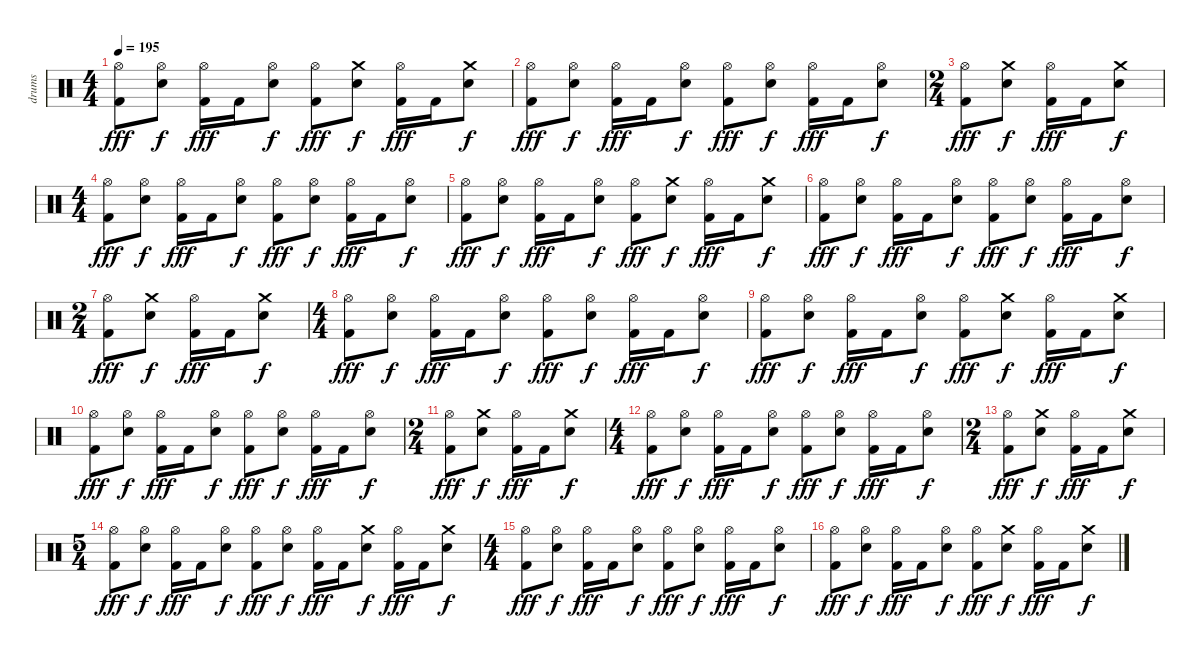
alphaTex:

\track ("drums" "drums") {instrument percussion}
\staff {score}
\articulation defaults
\ts (4 4)
\tempo 195
\clef neutral
\ks c
("Hi-Hat (open)" "Kick (hit) 2").8{dy fff} ("Hi-Hat (open)" "Snare (hit) 2").8{dy f} ("Hi-Hat (open)" "Kick (hit) 2").16{dy fff} "Kick (hit) 2".16 ("Hi-Hat (open)" "Snare (hit) 2").8{dy f} ("Hi-Hat (open)" "Kick (hit) 2").8{dy fff} ("Crash medium (hit)" "Snare (hit) 2").8{dy f} ("Hi-Hat (open)" "Kick (hit) 2").16{dy fff} "Kick (hit) 2".16 ("Crash medium (hit)" "Snare (hit) 2").8{dy f} |
("Hi-Hat (open)" "Kick (hit) 2").8{dy fff} ("Hi-Hat (open)" "Snare (hit) 2").8{dy f} ("Hi-Hat (open)" "Kick (hit) 2").16{dy fff} "Kick (hit) 2".16 ("Hi-Hat (open)" "Snare (hit) 2").8{dy f} ("Hi-Hat (open)" "Kick (hit) 2").8{dy fff} ("Hi-Hat (open)" "Snare (hit) 2").8{dy f} ("Hi-Hat (open)" "Kick (hit) 2").16{dy fff} "Kick (hit) 2".16 ("Hi-Hat (open)" "Snare (hit) 2").8{dy f} |
\ts (2 4)
("Hi-Hat (open)" "Kick (hit) 2").8{dy fff} ("Crash medium (hit)" "Snare (hit) 2").8{dy f} ("Hi-Hat (open)" "Kick (hit) 2").16{dy fff} "Kick (hit) 2".16 ("Crash medium (hit)" "Snare (hit) 2").8{dy f} |
\ts (4 4)
("Hi-Hat (open)" "Kick (hit) 2").8{dy fff} ("Hi-Hat (open)" "Snare (hit) 2").8{dy f} ("Hi-Hat (open)" "Kick (hit) 2").16{dy fff} "Kick (hit) 2".16 ("Hi-Hat (open)" "Snare (hit) 2").8{dy f} ("Hi-Hat (open)" "Kick (hit) 2").8{dy fff} ("Hi-Hat (open)" "Snare (hit) 2").8{dy f} ("Hi-Hat (open)" "Kick (hit) 2").16{dy fff} "Kick (hit) 2".16 ("Hi-Hat (open)" "Snare (hit) 2").8{dy f} |
("Hi-Hat (open)" "Kick (hit) 2").8{dy fff} ("Hi-Hat (open)" "Snare (hit) 2").8{dy f} ("Hi-Hat (open)" "Kick (hit) 2").16{dy fff} "Kick (hit) 2".16 ("Hi-Hat (open)" "Snare (hit) 2").8{dy f} ("Hi-Hat (open)" "Kick (hit) 2").8{dy fff} ("Crash medium (hit)" "Snare (hit) 2").8{dy f} ("Hi-Hat (open)" "Kick (hit) 2").16{dy fff} "Kick (hit) 2".16 ("Crash medium (hit)" "Snare (hit) 2").8{dy f} |
("Hi-Hat (open)" "Kick (hit) 2").8{dy fff} ("Hi-Hat (open)" "Snare (hit) 2").8{dy f} ("Hi-Hat (open)" "Kick (hit) 2").16{dy fff} "Kick (hit) 2".16 ("Hi-Hat (open)" "Snare (hit) 2").8{dy f} ("Hi-Hat (open)" "Kick (hit) 2").8{dy fff} ("Hi-Hat (open)" "Snare (hit) 2").8{dy f} ("Hi-Hat (open)" "Kick (hit) 2").16{dy fff} "Kick (hit) 2".16 ("Hi-Hat (open)" "Snare (hit) 2").8{dy f} |
\ts (2 4)
("Hi-Hat (open)" "Kick (hit) 2").8{dy fff} ("Crash medium (hit)" "Snare (hit) 2").8{dy f} ("Hi-Hat (open)" "Kick (hit) 2").16{dy fff} "Kick (hit) 2".16 ("Crash medium (hit)" "Snare (hit) 2").8{dy f} |
\ts (4 4)
("Hi-Hat (open)" "Kick (hit) 2").8{dy fff} ("Hi-Hat (open)" "Snare (hit) 2").8{dy f} ("Hi-Hat (open)" "Kick (hit) 2").16{dy fff} "Kick (hit) 2".16 ("Hi-Hat (open)" "Snare (hit) 2").8{dy f} ("Hi-Hat (open)" "Kick (hit) 2").8{dy fff} ("Hi-Hat (open)" "Snare (hit) 2").8{dy f} ("Hi-Hat (open)" "Kick (hit) 2").16{dy fff} "Kick (hit) 2".16 ("Hi-Hat (open)" "Snare (hit) 2").8{dy f} |
("Hi-Hat (open)" "Kick (hit) 2").8{dy fff} ("Hi-Hat (open)" "Snare (hit) 2").8{dy f} ("Hi-Hat (open)" "Kick (hit) 2").16{dy fff} "Kick (hit) 2".16 ("Hi-Hat (open)" "Snare (hit) 2").8{dy f} ("Hi-Hat (open)" "Kick (hit) 2").8{dy fff} ("Crash medium (hit)" "Snare (hit) 2").8{dy f} ("Hi-Hat (open)" "Kick (hit) 2").16{dy fff} "Kick (hit) 2".16 ("Crash medium (hit)" "Snare (hit) 2").8{dy f} |
("Hi-Hat (open)" "Kick (hit) 2").8{dy fff} ("Hi-Hat (open)" "Snare (hit) 2").8{dy f} ("Hi-Hat (open)" "Kick (hit) 2").16{dy fff} "Kick (hit) 2".16 ("Hi-Hat (open)" "Snare (hit) 2").8{dy f} ("Hi-Hat (open)" "Kick (hit) 2").8{dy fff} ("Hi-Hat (open)" "Snare (hit) 2").8{dy f} ("Hi-Hat (open)" "Kick (hit) 2").16{dy fff} "Kick (hit) 2".16 ("Hi-Hat (open)" "Snare (hit) 2").8{dy f} |
\ts (2 4)
("Hi-Hat (open)" "Kick (hit) 2").8{dy fff} ("Crash medium (hit)" "Snare (hit) 2").8{dy f} ("Hi-Hat (open)" "Kick (hit) 2").16{dy fff} "Kick (hit) 2".16 ("Crash medium (hit)" "Snare (hit) 2").8{dy f} |
\ts (4 4)
("Hi-Hat (open)" "Kick (hit) 2").8{dy fff} ("Hi-Hat (open)" "Snare (hit) 2").8{dy f} ("Hi-Hat (open)" "Kick (hit) 2").16{dy fff} "Kick (hit) 2".16 ("Hi-Hat (open)" "Snare (hit) 2").8{dy f} ("Hi-Hat (open)" "Kick (hit) 2").8{dy fff} ("Hi-Hat (open)" "Snare (hit) 2").8{dy f} ("Hi-Hat (open)" "Kick (hit) 2").16{dy fff} "Kick (hit) 2".16 ("Hi-Hat (open)" "Snare (hit) 2").8{dy f} |
\ts (2 4)
("Hi-Hat (open)" "Kick (hit) 2").8{dy fff} ("Crash medium (hit)" "Snare (hit) 2").8{dy f} ("Hi-Hat (open)" "Kick (hit) 2").16{dy fff} "Kick (hit) 2".16 ("Crash medium (hit)" "Snare (hit) 2").8{dy f} |
\ts (5 4)
("Hi-Hat (open)" "Kick (hit) 2").8{dy fff} ("Hi-Hat (open)" "Snare (hit) 2").8{dy f} ("Hi-Hat (open)" "Kick (hit) 2").16{dy fff} "Kick (hit) 2".16 ("Hi-Hat (open)" "Snare (hit) 2").8{dy f} ("Hi-Hat (open)" "Kick (hit) 2").8{dy fff} ("Hi-Hat (open)" "Snare (hit) 2").8{dy f} ("Hi-Hat (open)" "Kick (hit) 2").16{dy fff} "Kick (hit) 2".16 ("Crash medium (hit)" "Snare (hit) 2").8{dy f} ("Hi-Hat (open)" "Kick (hit) 2").16{dy fff} "Kick (hit) 2".16 ("Crash medium (hit)" "Snare (hit) 2").8{dy f} |
\ts (4 4)
("Hi-Hat (open)" "Kick (hit) 2").8{dy fff} ("Hi-Hat (open)" "Snare (hit) 2").8{dy f} ("Hi-Hat (open)" "Kick (hit) 2").16{dy fff} "Kick (hit) 2".16 ("Hi-Hat (open)" "Snare (hit) 2").8{dy f} ("Hi-Hat (open)" "Kick (hit) 2").8{dy fff} ("Hi-Hat (open)" "Snare (hit) 2").8{dy f} ("Hi-Hat (open)" "Kick (hit) 2").16{dy fff} "Kick (hit) 2".16 ("Hi-Hat (open)" "Snare (hit) 2").8{dy f} |
("Hi-Hat (open)" "Kick (hit) 2").8{dy fff} ("Hi-Hat (open)" "Snare (hit) 2").8{dy f} ("Hi-Hat (open)" "Kick (hit) 2").16{dy fff} "Kick (hit) 2".16 ("Hi-Hat (open)" "Snare (hit) 2").8{dy f} ("Hi-Hat (open)" "Kick (hit) 2").8{dy fff} ("Crash medium (hit)" "Snare (hit) 2").8{dy f} ("Hi-Hat (open)" "Kick (hit) 2").16{dy fff} "Kick (hit) 2".16 ("Crash medium (hit)" "Snare (hit) 2").8{dy f}
